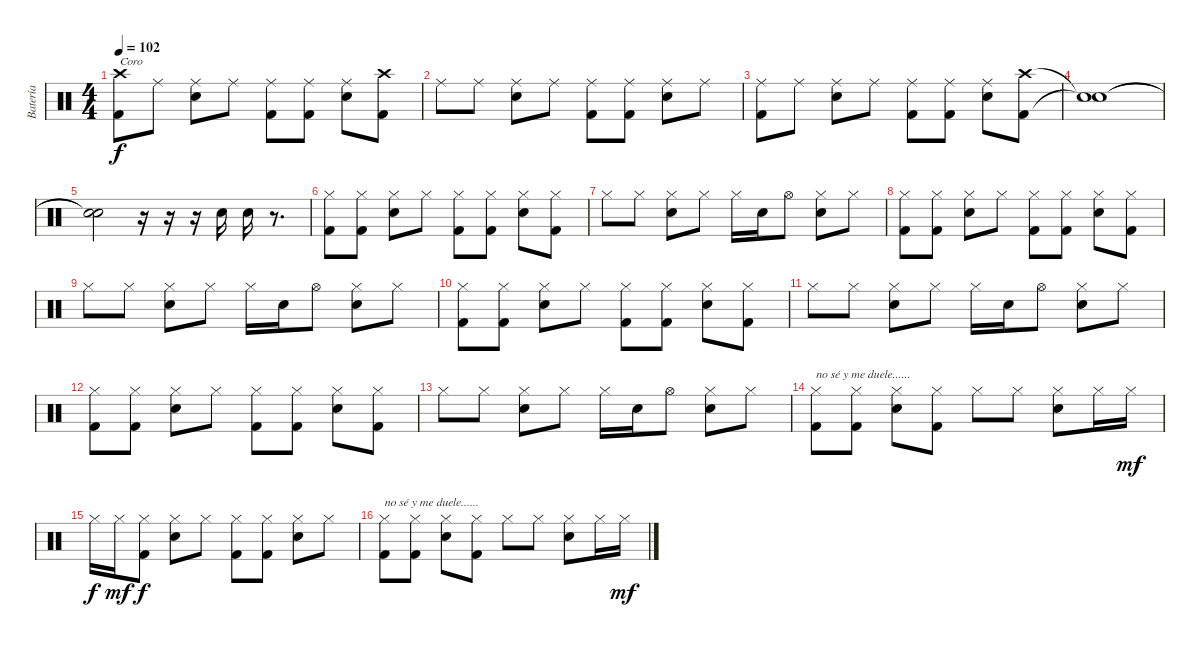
\track ("Batería" "Batería") {instrument percussion}
\staff {score}
\articulation defaults
\ts (4 4)
\tempo 102
\clef neutral
\ks c
("Crash high (hit)" "Kick (hit) 2").8{txt "Coro" dy f} "Ride (middle)".8 ("Ride (middle)" "Snare (hit) 2").8 "Ride (middle)".8 ("Ride (middle)" "Kick (hit) 2").8 ("Ride (middle)" "Kick (hit) 2").8 ("Ride (middle)" "Snare (hit) 2").8 ("Crash high (hit)" "Kick (hit) 2").8 |
"Ride (middle)".8 "Ride (middle)".8 ("Ride (middle)" "Snare (hit) 2").8 "Ride (middle)".8 ("Ride (middle)" "Kick (hit) 2").8 ("Ride (middle)" "Kick (hit) 2").8 ("Ride (middle)" "Snare (hit) 2").8 "Ride (middle)".8 |
("Ride (middle)" "Kick (hit) 2").8 "Ride (middle)".8 ("Ride (middle)" "Snare (hit) 2").8 "Ride (middle)".8 ("Ride (middle)" "Kick (hit) 2").8 ("Ride (middle)" "Kick (hit) 2").8 ("Ride (middle)" "Snare (hit) 2").8 ("Crash high (hit)" "Kick (hit) 2").8 |
("Snare (hit)"{t} "Snare (hit)"{t}).1 |
("Snare (hit)"{t} "Snare (hit)"{t}).2 r.16 r.16 r.16 "Snare (hit) 2".16 "Snare (hit) 2".16 r.8{d} |
("Hi-Hat (closed)" "Kick (hit) 2").8 ("Hi-Hat (closed)" "Kick (hit) 2").8 ("Hi-Hat (closed)" "Snare (hit) 2").8 "Hi-Hat (closed)".8 ("Hi-Hat (closed)" "Kick (hit) 2").8 ("Hi-Hat (closed)" "Kick (hit) 2").8 ("Hi-Hat (closed)" "Snare (hit) 2").8 ("Hi-Hat (closed)" "Kick (hit) 2").8 |
"Hi-Hat (closed)".8 "Hi-Hat (closed)".8 ("Hi-Hat (closed)" "Snare (hit) 2").8 "Hi-Hat (closed)".8 "Hi-Hat (closed)".16 "Snare (hit) 2".16 "Hi-Hat (open)".8 ("Hi-Hat (closed)" "Snare (hit) 2").8 "Hi-Hat (closed)".8 |
("Hi-Hat (closed)" "Kick (hit) 2").8 ("Hi-Hat (closed)" "Kick (hit) 2").8 ("Hi-Hat (closed)" "Snare (hit) 2").8 "Hi-Hat (closed)".8 ("Hi-Hat (closed)" "Kick (hit) 2").8 ("Hi-Hat (closed)" "Kick (hit) 2").8 ("Hi-Hat (closed)" "Snare (hit) 2").8 ("Hi-Hat (closed)" "Kick (hit) 2").8 |
"Hi-Hat (closed)".8 "Hi-Hat (closed)".8 ("Hi-Hat (closed)" "Snare (hit) 2").8 "Hi-Hat (closed)".8 "Hi-Hat (closed)".16 "Snare (hit) 2".16 "Hi-Hat (open)".8 ("Hi-Hat (closed)" "Snare (hit) 2").8 "Hi-Hat (closed)".8 |
("Hi-Hat (closed)" "Kick (hit) 2").8 ("Hi-Hat (closed)" "Kick (hit) 2").8 ("Hi-Hat (closed)" "Snare (hit) 2").8 "Hi-Hat (closed)".8 ("Hi-Hat (closed)" "Kick (hit) 2").8 ("Hi-Hat (closed)" "Kick (hit) 2").8 ("Hi-Hat (closed)" "Snare (hit) 2").8 ("Hi-Hat (closed)" "Kick (hit) 2").8 |
"Hi-Hat (closed)".8 "Hi-Hat (closed)".8 ("Hi-Hat (closed)" "Snare (hit) 2").8 "Hi-Hat (closed)".8 "Hi-Hat (closed)".16 "Snare (hit) 2".16 "Hi-Hat (open)".8 ("Hi-Hat (closed)" "Snare (hit) 2").8 "Hi-Hat (closed)".8 |
("Hi-Hat (closed)" "Kick (hit) 2").8 ("Hi-Hat (closed)" "Kick (hit) 2").8 ("Hi-Hat (closed)" "Snare (hit) 2").8 "Hi-Hat (closed)".8 ("Hi-Hat (closed)" "Kick (hit) 2").8 ("Hi-Hat (closed)" "Kick (hit) 2").8 ("Hi-Hat (closed)" "Snare (hit) 2").8 ("Hi-Hat (closed)" "Kick (hit) 2").8 |
"Hi-Hat (closed)".8 "Hi-Hat (closed)".8 ("Hi-Hat (closed)" "Snare (hit) 2").8 "Hi-Hat (closed)".8 "Hi-Hat (closed)".16 "Snare (hit) 2".16 "Hi-Hat (open)".8 ("Hi-Hat (closed)" "Snare (hit) 2").8 "Hi-Hat (closed)".8 |
("Hi-Hat (closed)" "Kick (hit) 2").8{txt "no sé y me duele......"} ("Hi-Hat (closed)" "Kick (hit) 2").8 ("Hi-Hat (closed)" "Snare (hit) 2").8 ("Hi-Hat (closed)" "Kick (hit) 2").8 "Hi-Hat (closed)".8 "Hi-Hat (closed)".8 ("Hi-Hat (closed)" "Snare (hit) 2").8 "Hi-Hat (closed)".16 "Hi-Hat (closed)".16{dy mf} |
"Hi-Hat (closed)".16{dy f} "Hi-Hat (closed)".16{dy mf} ("Hi-Hat (closed)" "Kick (hit) 2").8{dy f} ("Hi-Hat (closed)" "Snare (hit) 2").8 "Hi-Hat (closed)".8 ("Hi-Hat (closed)" "Kick (hit) 2").8 ("Hi-Hat (closed)" "Kick (hit) 2").8 ("Hi-Hat (closed)" "Snare (hit) 2").8 "Hi-Hat (closed)".8 |
("Hi-Hat (closed)" "Kick (hit) 2").8{txt "no sé y me duele......"} ("Hi-Hat (closed)" "Kick (hit) 2").8 ("Hi-Hat (closed)" "Snare (hit) 2").8 ("Hi-Hat (closed)" "Kick (hit) 2").8 "Hi-Hat (closed)".8 "Hi-Hat (closed)".8 ("Hi-Hat (closed)" "Snare (hit) 2").8 "Hi-Hat (closed)".16 "Hi-Hat (closed)".16{dy mf}
